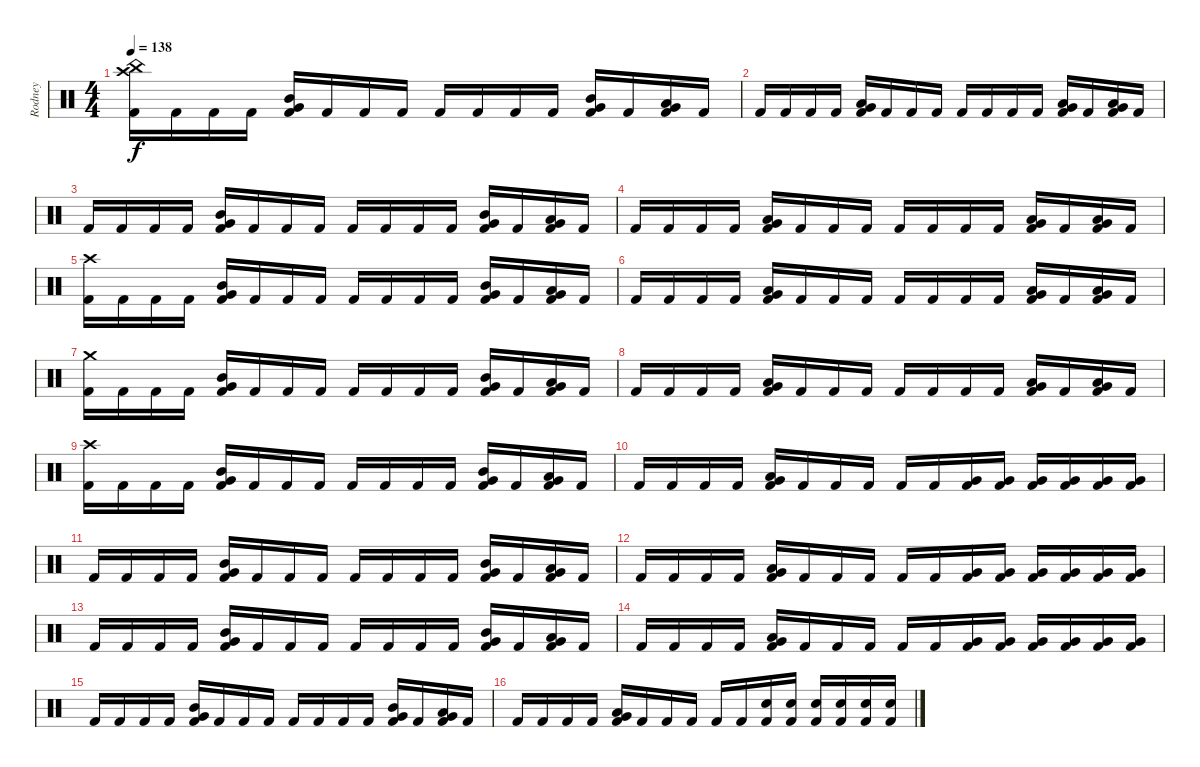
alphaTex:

\track ("Rodney" "Rodney") {instrument percussion}
\staff {score}
\articulation defaults
\ts (4 4)
\tempo 138
\clef neutral
\ks c
("China (hit)" "Crash high (hit)" "Kick (hit) 2").16{dy f} "Kick (hit) 2".16 "Kick (hit) 2".16 "Kick (hit) 2".16 ("Mid Tom (hit)" "Very Low Tom (hit)" "Kick (hit) 2").16 "Kick (hit) 2".16 "Kick (hit) 2".16 "Kick (hit) 2".16 "Kick (hit) 2".16 "Kick (hit) 2".16 "Kick (hit) 2".16 "Kick (hit) 2".16 ("Mid Tom (hit)" "Very Low Tom (hit)" "Kick (hit) 2").16 "Kick (hit) 2".16 ("Low Tom (hit)" "Very Low Tom (hit)" "Kick (hit) 2").16 "Kick (hit) 2".16 |
"Kick (hit) 2".16 "Kick (hit) 2".16 "Kick (hit) 2".16 "Kick (hit) 2".16 ("Low Tom (hit)" "Very Low Tom (hit)" "Kick (hit) 2").16 "Kick (hit) 2".16 "Kick (hit) 2".16 "Kick (hit) 2".16 "Kick (hit) 2".16 "Kick (hit) 2".16 "Kick (hit) 2".16 "Kick (hit) 2".16 ("Low Tom (hit)" "Very Low Tom (hit)" "Kick (hit) 2").16 "Kick (hit) 2".16 ("Very Low Tom (hit)" "Low Floor Tom (hit)" "Kick (hit) 2").16 "Kick (hit) 2".16 |
"Kick (hit) 2".16 "Kick (hit) 2".16 "Kick (hit) 2".16 "Kick (hit) 2".16 ("Mid Tom (hit)" "Very Low Tom (hit)" "Kick (hit) 2").16 "Kick (hit) 2".16 "Kick (hit) 2".16 "Kick (hit) 2".16 "Kick (hit) 2".16 "Kick (hit) 2".16 "Kick (hit) 2".16 "Kick (hit) 2".16 ("Mid Tom (hit)" "Very Low Tom (hit)" "Kick (hit) 2").16 "Kick (hit) 2".16 ("Low Tom (hit)" "Very Low Tom (hit)" "Kick (hit) 2").16 "Kick (hit) 2".16 |
"Kick (hit) 2".16 "Kick (hit) 2".16 "Kick (hit) 2".16 "Kick (hit) 2".16 ("Low Tom (hit)" "Very Low Tom (hit)" "Kick (hit) 2").16 "Kick (hit) 2".16 "Kick (hit) 2".16 "Kick (hit) 2".16 "Kick (hit) 2".16 "Kick (hit) 2".16 "Kick (hit) 2".16 "Kick (hit) 2".16 ("Low Tom (hit)" "Very Low Tom (hit)" "Kick (hit) 2").16 "Kick (hit) 2".16 ("Very Low Tom (hit)" "Low Floor Tom (hit)" "Kick (hit) 2").16 "Kick (hit) 2".16 |
("Crash high (hit)" "Kick (hit) 2").16 "Kick (hit) 2".16 "Kick (hit) 2".16 "Kick (hit) 2".16 ("Mid Tom (hit)" "Very Low Tom (hit)" "Kick (hit) 2").16 "Kick (hit) 2".16 "Kick (hit) 2".16 "Kick (hit) 2".16 "Kick (hit) 2".16 "Kick (hit) 2".16 "Kick (hit) 2".16 "Kick (hit) 2".16 ("Mid Tom (hit)" "Very Low Tom (hit)" "Kick (hit) 2").16 "Kick (hit) 2".16 ("Low Tom (hit)" "Very Low Tom (hit)" "Kick (hit) 2").16 "Kick (hit) 2".16 |
"Kick (hit) 2".16 "Kick (hit) 2".16 "Kick (hit) 2".16 "Kick (hit) 2".16 ("Low Tom (hit)" "Very Low Tom (hit)" "Kick (hit) 2").16 "Kick (hit) 2".16 "Kick (hit) 2".16 "Kick (hit) 2".16 "Kick (hit) 2".16 "Kick (hit) 2".16 "Kick (hit) 2".16 "Kick (hit) 2".16 ("Low Tom (hit)" "Very Low Tom (hit)" "Kick (hit) 2").16 "Kick (hit) 2".16 ("Very Low Tom (hit)" "Low Floor Tom (hit)" "Kick (hit) 2").16 "Kick (hit) 2".16 |
("Crash medium (hit)" "Kick (hit) 2").16 "Kick (hit) 2".16 "Kick (hit) 2".16 "Kick (hit) 2".16 ("Mid Tom (hit)" "Very Low Tom (hit)" "Kick (hit) 2").16 "Kick (hit) 2".16 "Kick (hit) 2".16 "Kick (hit) 2".16 "Kick (hit) 2".16 "Kick (hit) 2".16 "Kick (hit) 2".16 "Kick (hit) 2".16 ("Mid Tom (hit)" "Very Low Tom (hit)" "Kick (hit) 2").16 "Kick (hit) 2".16 ("Low Tom (hit)" "Very Low Tom (hit)" "Kick (hit) 2").16 "Kick (hit) 2".16 |
"Kick (hit) 2".16 "Kick (hit) 2".16 "Kick (hit) 2".16 "Kick (hit) 2".16 ("Low Tom (hit)" "Very Low Tom (hit)" "Kick (hit) 2").16 "Kick (hit) 2".16 "Kick (hit) 2".16 "Kick (hit) 2".16 "Kick (hit) 2".16 "Kick (hit) 2".16 "Kick (hit) 2".16 "Kick (hit) 2".16 ("Low Tom (hit)" "Very Low Tom (hit)" "Kick (hit) 2").16 "Kick (hit) 2".16 ("Very Low Tom (hit)" "Low Floor Tom (hit)" "Kick (hit) 2").16 "Kick (hit) 2".16 |
("Crash high (hit)" "Kick (hit) 2").16 "Kick (hit) 2".16 "Kick (hit) 2".16 "Kick (hit) 2".16 ("Mid Tom (hit)" "Very Low Tom (hit)" "Kick (hit) 2").16 "Kick (hit) 2".16 "Kick (hit) 2".16 "Kick (hit) 2".16 "Kick (hit) 2".16 "Kick (hit) 2".16 "Kick (hit) 2".16 "Kick (hit) 2".16 ("Mid Tom (hit)" "Very Low Tom (hit)" "Kick (hit) 2").16 "Kick (hit) 2".16 ("Low Tom (hit)" "Very Low Tom (hit)" "Kick (hit) 2").16 "Kick (hit) 2".16 |
"Kick (hit) 2".16 "Kick (hit) 2".16 "Kick (hit) 2".16 "Kick (hit) 2".16 ("Low Tom (hit)" "Very Low Tom (hit)" "Kick (hit) 2").16 "Kick (hit) 2".16 "Kick (hit) 2".16 "Kick (hit) 2".16 "Kick (hit) 2".16 "Kick (hit) 2".16 ("Very Low Tom (hit)" "Kick (hit) 2").16 ("Very Low Tom (hit)" "Kick (hit) 2").16 ("Very Low Tom (hit)" "Kick (hit) 2").16 ("Very Low Tom (hit)" "Kick (hit) 2").16 ("Very Low Tom (hit)" "Kick (hit) 2").16 ("Very Low Tom (hit)" "Kick (hit) 2").16 |
"Kick (hit) 2".16 "Kick (hit) 2".16 "Kick (hit) 2".16 "Kick (hit) 2".16 ("Mid Tom (hit)" "Very Low Tom (hit)" "Kick (hit) 2").16 "Kick (hit) 2".16 "Kick (hit) 2".16 "Kick (hit) 2".16 "Kick (hit) 2".16 "Kick (hit) 2".16 "Kick (hit) 2".16 "Kick (hit) 2".16 ("Mid Tom (hit)" "Very Low Tom (hit)" "Kick (hit) 2").16 "Kick (hit) 2".16 ("Low Tom (hit)" "Very Low Tom (hit)" "Kick (hit) 2").16 "Kick (hit) 2".16 |
"Kick (hit) 2".16 "Kick (hit) 2".16 "Kick (hit) 2".16 "Kick (hit) 2".16 ("Low Tom (hit)" "Very Low Tom (hit)" "Kick (hit) 2").16 "Kick (hit) 2".16 "Kick (hit) 2".16 "Kick (hit) 2".16 "Kick (hit) 2".16 "Kick (hit) 2".16 ("Very Low Tom (hit)" "Kick (hit) 2").16 ("Very Low Tom (hit)" "Kick (hit) 2").16 ("Very Low Tom (hit)" "Kick (hit) 2").16 ("Very Low Tom (hit)" "Kick (hit) 2").16 ("Very Low Tom (hit)" "Kick (hit) 2").16 ("Very Low Tom (hit)" "Kick (hit) 2").16 |
"Kick (hit) 2".16 "Kick (hit) 2".16 "Kick (hit) 2".16 "Kick (hit) 2".16 ("Mid Tom (hit)" "Very Low Tom (hit)" "Kick (hit) 2").16 "Kick (hit) 2".16 "Kick (hit) 2".16 "Kick (hit) 2".16 "Kick (hit) 2".16 "Kick (hit) 2".16 "Kick (hit) 2".16 "Kick (hit) 2".16 ("Mid Tom (hit)" "Very Low Tom (hit)" "Kick (hit) 2").16 "Kick (hit) 2".16 ("Low Tom (hit)" "Very Low Tom (hit)" "Kick (hit) 2").16 "Kick (hit) 2".16 |
"Kick (hit) 2".16 "Kick (hit) 2".16 "Kick (hit) 2".16 "Kick (hit) 2".16 ("Low Tom (hit)" "Very Low Tom (hit)" "Kick (hit) 2").16 "Kick (hit) 2".16 "Kick (hit) 2".16 "Kick (hit) 2".16 "Kick (hit) 2".16 "Kick (hit) 2".16 ("Very Low Tom (hit)" "Kick (hit) 2").16 ("Very Low Tom (hit)" "Kick (hit) 2").16 ("Very Low Tom (hit)" "Kick (hit) 2").16 ("Very Low Tom (hit)" "Kick (hit) 2").16 ("Very Low Tom (hit)" "Kick (hit) 2").16 ("Very Low Tom (hit)" "Kick (hit) 2").16 |
"Kick (hit) 2".16 "Kick (hit) 2".16 "Kick (hit) 2".16 "Kick (hit) 2".16 ("Mid Tom (hit)" "Very Low Tom (hit)" "Kick (hit) 2").16 "Kick (hit) 2".16 "Kick (hit) 2".16 "Kick (hit) 2".16 "Kick (hit) 2".16 "Kick (hit) 2".16 "Kick (hit) 2".16 "Kick (hit) 2".16 ("Mid Tom (hit)" "Very Low Tom (hit)" "Kick (hit) 2").16 "Kick (hit) 2".16 ("Low Tom (hit)" "Very Low Tom (hit)" "Kick (hit) 2").16 "Kick (hit) 2".16 |
"Kick (hit) 2".16 "Kick (hit) 2".16 "Kick (hit) 2".16 "Kick (hit) 2".16 ("Low Tom (hit)" "Very Low Tom (hit)" "Kick (hit) 2").16 "Kick (hit) 2".16 "Kick (hit) 2".16 "Kick (hit) 2".16 "Kick (hit) 2".16 "Kick (hit) 2".16 ("Snare (hit) 2" "Kick (hit) 2").16 ("Snare (hit) 2" "Kick (hit) 2").16 ("Snare (hit) 2" "Kick (hit) 2").16 ("Snare (hit) 2" "Kick (hit) 2").16 ("Snare (hit) 2" "Kick (hit) 2").16 ("Snare (hit) 2" "Kick (hit) 2").16
